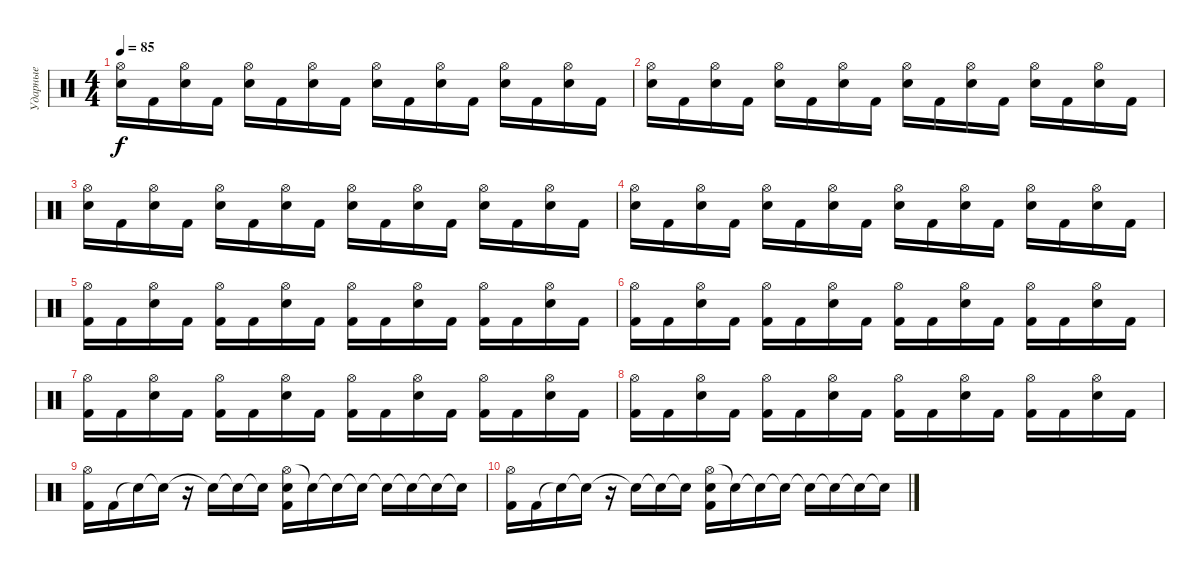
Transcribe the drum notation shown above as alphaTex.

\track ("Ударные" "Ударные") {instrument percussion}
\staff {score}
\articulation defaults
\ts (4 4)
\tempo 85
\clef neutral
\ks c
("Hi-Hat (open)" "Electric Snare (hit)").16{dy f} "Kick (hit) 2".16 ("Hi-Hat (open)" "Electric Snare (hit)").16 "Kick (hit) 2".16 ("Hi-Hat (open)" "Electric Snare (hit)").16 "Kick (hit) 2".16 ("Hi-Hat (open)" "Electric Snare (hit)").16 "Kick (hit) 2".16 ("Hi-Hat (open)" "Electric Snare (hit)").16 "Kick (hit) 2".16 ("Hi-Hat (open)" "Electric Snare (hit)").16 "Kick (hit) 2".16 ("Hi-Hat (open)" "Electric Snare (hit)").16 "Kick (hit) 2".16 ("Hi-Hat (open)" "Electric Snare (hit)").16 "Kick (hit) 2".16 |
("Hi-Hat (open)" "Electric Snare (hit)").16 "Kick (hit) 2".16 ("Hi-Hat (open)" "Electric Snare (hit)").16 "Kick (hit) 2".16 ("Hi-Hat (open)" "Electric Snare (hit)").16 "Kick (hit) 2".16 ("Hi-Hat (open)" "Electric Snare (hit)").16 "Kick (hit) 2".16 ("Hi-Hat (open)" "Electric Snare (hit)").16 "Kick (hit) 2".16 ("Hi-Hat (open)" "Electric Snare (hit)").16 "Kick (hit) 2".16 ("Hi-Hat (open)" "Electric Snare (hit)").16 "Kick (hit) 2".16 ("Hi-Hat (open)" "Electric Snare (hit)").16 "Kick (hit) 2".16 |
("Hi-Hat (open)" "Electric Snare (hit)").16 "Kick (hit) 2".16 ("Hi-Hat (open)" "Electric Snare (hit)").16 "Kick (hit) 2".16 ("Hi-Hat (open)" "Electric Snare (hit)").16 "Kick (hit) 2".16 ("Hi-Hat (open)" "Electric Snare (hit)").16 "Kick (hit) 2".16 ("Hi-Hat (open)" "Electric Snare (hit)").16 "Kick (hit) 2".16 ("Hi-Hat (open)" "Electric Snare (hit)").16 "Kick (hit) 2".16 ("Hi-Hat (open)" "Electric Snare (hit)").16 "Kick (hit) 2".16 ("Hi-Hat (open)" "Electric Snare (hit)").16 "Kick (hit) 2".16 |
("Hi-Hat (open)" "Electric Snare (hit)").16 "Kick (hit) 2".16 ("Hi-Hat (open)" "Electric Snare (hit)").16 "Kick (hit) 2".16 ("Hi-Hat (open)" "Electric Snare (hit)").16 "Kick (hit) 2".16 ("Hi-Hat (open)" "Electric Snare (hit)").16 "Kick (hit) 2".16 ("Hi-Hat (open)" "Electric Snare (hit)").16 "Kick (hit) 2".16 ("Hi-Hat (open)" "Electric Snare (hit)").16 "Kick (hit) 2".16 ("Hi-Hat (open)" "Electric Snare (hit)").16 "Kick (hit) 2".16 ("Hi-Hat (open)" "Electric Snare (hit)").16 "Kick (hit) 2".16 |
("Hi-Hat (open)" "Kick (hit) 2").16 "Kick (hit) 2".16 ("Hi-Hat (open)" "Electric Snare (hit)").16 "Kick (hit) 2".16 ("Hi-Hat (open)" "Kick (hit) 2").16 "Kick (hit) 2".16 ("Hi-Hat (open)" "Electric Snare (hit)").16 "Kick (hit) 2".16 ("Hi-Hat (open)" "Kick (hit) 2").16 "Kick (hit) 2".16 ("Hi-Hat (open)" "Electric Snare (hit)").16 "Kick (hit) 2".16 ("Hi-Hat (open)" "Kick (hit) 2").16 "Kick (hit) 2".16 ("Hi-Hat (open)" "Electric Snare (hit)").16 "Kick (hit) 2".16 |
("Hi-Hat (open)" "Kick (hit) 2").16 "Kick (hit) 2".16 ("Hi-Hat (open)" "Electric Snare (hit)").16 "Kick (hit) 2".16 ("Hi-Hat (open)" "Kick (hit) 2").16 "Kick (hit) 2".16 ("Hi-Hat (open)" "Electric Snare (hit)").16 "Kick (hit) 2".16 ("Hi-Hat (open)" "Kick (hit) 2").16 "Kick (hit) 2".16 ("Hi-Hat (open)" "Electric Snare (hit)").16 "Kick (hit) 2".16 ("Hi-Hat (open)" "Kick (hit) 2").16 "Kick (hit) 2".16 ("Hi-Hat (open)" "Electric Snare (hit)").16 "Kick (hit) 2".16 |
("Hi-Hat (open)" "Kick (hit) 2").16 "Kick (hit) 2".16 ("Hi-Hat (open)" "Electric Snare (hit)").16 "Kick (hit) 2".16 ("Hi-Hat (open)" "Kick (hit) 2").16 "Kick (hit) 2".16 ("Hi-Hat (open)" "Electric Snare (hit)").16 "Kick (hit) 2".16 ("Hi-Hat (open)" "Kick (hit) 2").16 "Kick (hit) 2".16 ("Hi-Hat (open)" "Electric Snare (hit)").16 "Kick (hit) 2".16 ("Hi-Hat (open)" "Kick (hit) 2").16 "Kick (hit) 2".16 ("Hi-Hat (open)" "Electric Snare (hit)").16 "Kick (hit) 2".16 |
("Hi-Hat (open)" "Kick (hit) 2").16 "Kick (hit) 2".16 ("Hi-Hat (open)" "Electric Snare (hit)").16 "Kick (hit) 2".16 ("Hi-Hat (open)" "Kick (hit) 2").16 "Kick (hit) 2".16 ("Hi-Hat (open)" "Electric Snare (hit)").16 "Kick (hit) 2".16 ("Hi-Hat (open)" "Kick (hit) 2").16 "Kick (hit) 2".16 ("Hi-Hat (open)" "Electric Snare (hit)").16 "Kick (hit) 2".16 ("Hi-Hat (open)" "Kick (hit) 2").16 "Kick (hit) 2".16 ("Hi-Hat (open)" "Electric Snare (hit)").16 "Kick (hit) 2".16 |
("Hi-Hat (open)" "Kick (hit) 2").16 "Kick (hit) 2".16 "Snare (hit)"{t}.16 "Snare (hit)"{t}.16 r.16 "Snare (hit)"{t}.16 "Snare (hit)"{t}.16 "Snare (hit)"{t}.16 ("Hi-Hat (open)" "Electric Snare (hit)" "Kick (hit) 2").16 "Snare (hit)"{t}.16 "Snare (hit)"{t}.16 "Snare (hit)"{t}.16 "Snare (hit)"{t}.16 "Snare (hit)"{t}.16 "Snare (hit)"{t}.16 "Snare (hit)"{t}.16 |
("Hi-Hat (open)" "Kick (hit) 2").16 "Kick (hit) 2".16 "Snare (hit)"{t}.16 "Snare (hit)"{t}.16 r.16 "Snare (hit)"{t}.16 "Snare (hit)"{t}.16 "Snare (hit)"{t}.16 ("Hi-Hat (open)" "Electric Snare (hit)" "Kick (hit) 2").16 "Snare (hit)"{t}.16 "Snare (hit)"{t}.16 "Snare (hit)"{t}.16 "Snare (hit)"{t}.16 "Snare (hit)"{t}.16 "Snare (hit)"{t}.16 "Snare (hit)"{t}.16
